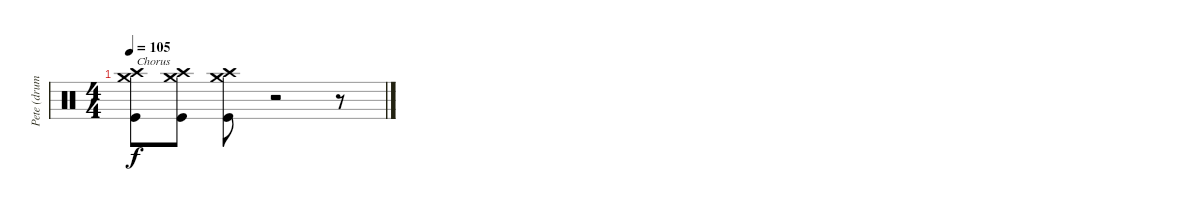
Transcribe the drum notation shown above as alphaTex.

\track ("Pete (drums)" "Pete (drum") {instrument percussion}
\staff {score}
\articulation defaults
\ts (4 4)
\tempo 105
\clef neutral
\ks c
("Crash medium (hit)" "Crash high (hit)" "Kick (hit)").8{txt "Chorus" dy f} ("Crash medium (hit)" "Crash high (hit)" "Kick (hit)").8 ("Crash medium (hit)" "Crash high (hit)" "Kick (hit)").8 r.2 r.8
